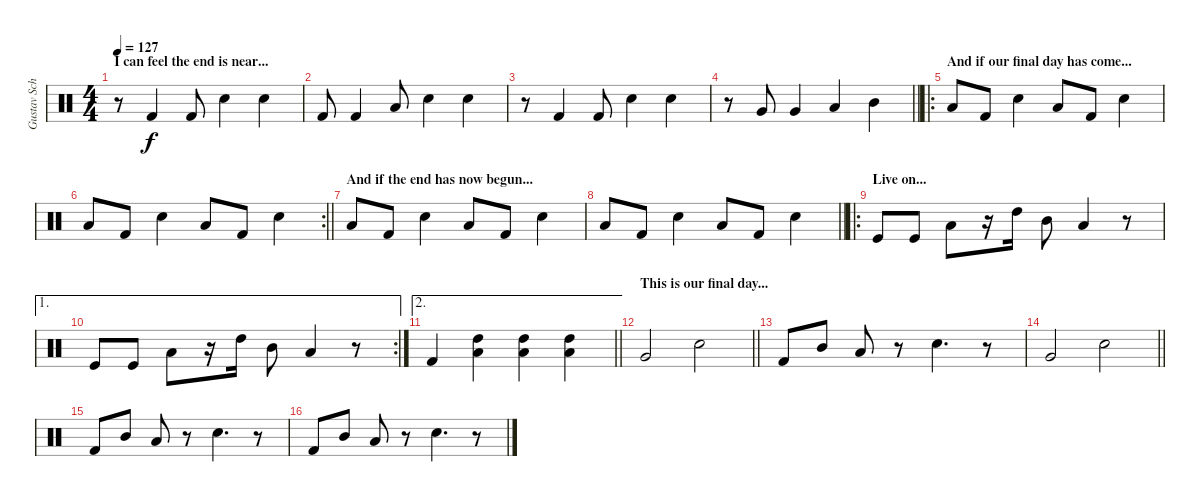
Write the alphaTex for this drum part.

\track ("Gustav Schäfer" "Gustav Sch") {instrument percussion}
\staff {score}
\articulation defaults
\ts (4 4)
\section ("" "I can feel the end is near...")
\tempo 127
\clef neutral
\ks c
r.8{dy f} "Kick (hit) 2".4 "Kick (hit) 2".8 "Electric Snare (hit)".4 "Electric Snare (hit)".4 |
"Kick (hit) 2".8 "Kick (hit) 2".4 "Low Tom (hit)".8 "Electric Snare (hit)".4 "Electric Snare (hit)".4 |
r.8 "Kick (hit) 2".4 "Kick (hit) 2".8 "Electric Snare (hit)".4 "Electric Snare (hit)".4 |
\barLineRight lightlight
r.8 "Very Low Tom (hit)".8 "Very Low Tom (hit)".4 "Low Tom (hit)".4 "Mid Tom (hit)".4 |
\ro
\section ("" "And if our final day has come...")
"Low Tom (hit)".8 "Kick (hit) 2".8 "Electric Snare (hit)".4 "Low Tom (hit)".8 "Kick (hit) 2".8 "Electric Snare (hit)".4 |
\rc 2
\barLineRight lightlight "Low Tom (hit)".8 "Kick (hit) 2".8 "Electric Snare (hit)".4 "Low Tom (hit)".8 "Kick (hit) 2".8 "Electric Snare (hit)".4
|
\section ("" "And if the end has now begun...")
"Low Tom (hit)".8 "Kick (hit) 2".8 "Electric Snare (hit)".4 "Low Tom (hit)".8 "Kick (hit) 2".8 "Electric Snare (hit)".4 |
\barLineRight lightlight "Low Tom (hit)".8 "Kick (hit) 2".8 "Electric Snare (hit)".4 "Low Tom (hit)".8 "Kick (hit) 2".8 "Electric Snare (hit)".4
|
\ro
\section ("" "Live on...")
"Kick (hit)".8 "Kick (hit)".8 "Low Tom (hit)".8 r.16 "High Tom (hit)".16 "Mid Tom (hit)".8 "Low Tom (hit)".4 r.8 |
\ae 1
\rc 2 "Kick (hit)".8 "Kick (hit)".8 "Low Tom (hit)".8
r.16 "High Tom (hit)".16 "Mid Tom (hit)".8 "Low Tom (hit)".4 r.8 |
\ae 2
\barLineRight lightlight "Kick (hit) 2".4
("High Tom (hit)" "Low Tom (hit)").4 ("High Tom (hit)" "Low Tom (hit)").4 ("High Tom (hit)" "Low Tom (hit)").4 |
\section ("" "This is our final day...")
\barLineRight lightlight "Very Low Tom (hit)".2 "Electric Snare (hit)".2
|
"Kick (hit) 2".8 "Mid Tom (hit)".8 "Low Tom (hit)".8 r.8 "Electric Snare (hit)".4{d} r.8 |
\barLineRight lightlight "Very Low Tom (hit)".2 "Electric Snare (hit)".2
|
"Kick (hit) 2".8 "Mid Tom (hit)".8 "Low Tom (hit)".8 r.8 "Electric Snare (hit)".4{d} r.8 |
"Kick (hit) 2".8 "Mid Tom (hit)".8 "Low Tom (hit)".8 r.8 "Electric Snare (hit)".4{d} r.8
